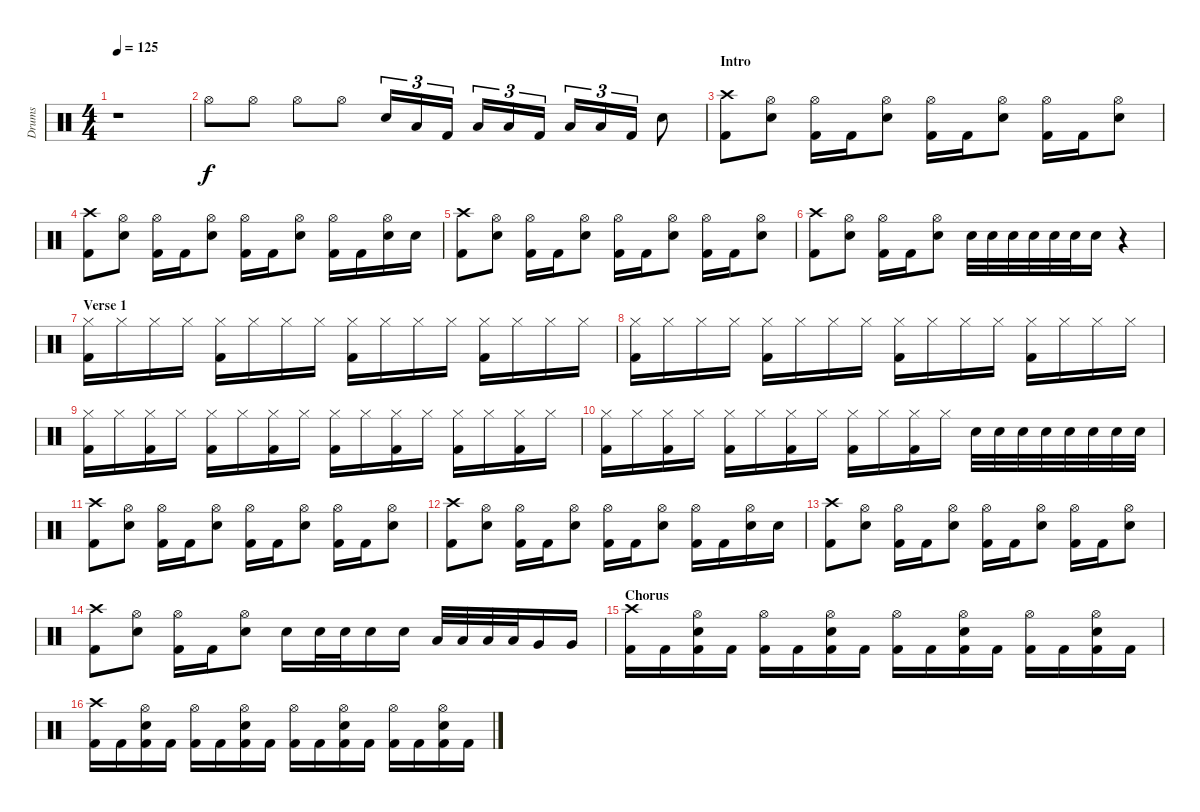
\track ("Drums" "Drums") {instrument percussion}
\staff {score}
\articulation defaults
\ts (4 4)
\tempo 125
\clef neutral
\ks c
r.1{dy f} |
"Hi-Hat (open)".8 "Hi-Hat (open)".8 "Hi-Hat (open)".8 "Hi-Hat (open)".8 "Electric Snare (hit)".16{tu (3 2)} "Low Floor Tom (hit)".16{tu (3 2)} "Kick (hit) 2".16{tu (3 2)} "Low Tom (hit)".16{tu (3 2)} "Low Floor Tom (hit)".16{tu (3 2)} "Kick (hit) 2".16{tu (3 2)} "Low Tom (hit)".16{tu (3 2)} "Low Floor Tom (hit)".16{tu (3 2)} "Kick (hit) 2".16{tu (3 2)} "Electric Snare (hit)".8 |
\section ("" "Intro")
("Crash high (hit)" "Kick (hit) 2").8 ("Hi-Hat (open)" "Electric Snare (hit)").8 ("Hi-Hat (open)" "Kick (hit) 2").16 "Kick (hit) 2".16 ("Hi-Hat (open)" "Electric Snare (hit)").8 ("Hi-Hat (open)" "Kick (hit) 2").16 "Kick (hit) 2".16 ("Hi-Hat (open)" "Electric Snare (hit)").8 ("Hi-Hat (open)" "Kick (hit) 2").16 "Kick (hit) 2".16 ("Hi-Hat (open)" "Electric Snare (hit)").8 |
("Crash high (hit)" "Kick (hit) 2").8 ("Hi-Hat (open)" "Electric Snare (hit)").8 ("Hi-Hat (open)" "Kick (hit) 2").16 "Kick (hit) 2".16 ("Hi-Hat (open)" "Electric Snare (hit)").8 ("Hi-Hat (open)" "Kick (hit) 2").16 "Kick (hit) 2".16 ("Hi-Hat (open)" "Electric Snare (hit)").8 ("Hi-Hat (open)" "Kick (hit) 2").16 "Kick (hit) 2".16 ("Hi-Hat (open)" "Electric Snare (hit)").16 "Electric Snare (hit)".16 |
("Crash high (hit)" "Kick (hit) 2").8 ("Hi-Hat (open)" "Electric Snare (hit)").8 ("Hi-Hat (open)" "Kick (hit) 2").16 "Kick (hit) 2".16 ("Hi-Hat (open)" "Electric Snare (hit)").8 ("Hi-Hat (open)" "Kick (hit) 2").16 "Kick (hit) 2".16 ("Hi-Hat (open)" "Electric Snare (hit)").8 ("Hi-Hat (open)" "Kick (hit) 2").16 "Kick (hit) 2".16 ("Hi-Hat (open)" "Electric Snare (hit)").8 |
("Crash high (hit)" "Kick (hit) 2").8 ("Hi-Hat (open)" "Electric Snare (hit)").8 ("Hi-Hat (open)" "Kick (hit) 2").16 "Kick (hit) 2".16 ("Hi-Hat (open)" "Electric Snare (hit)").8 "Electric Snare (hit)".32 "Electric Snare (hit)".32 "Electric Snare (hit)".32 "Electric Snare (hit)".32 "Electric Snare (hit)".32 "Electric Snare (hit)".32 "Electric Snare (hit)".16 r.4 |
\section ("" "Verse 1")
("Hi-Hat (closed)" "Kick (hit) 2").16 "Hi-Hat (closed)".16 "Hi-Hat (closed)".16 "Hi-Hat (closed)".16 ("Hi-Hat (closed)" "Kick (hit) 2").16 "Hi-Hat (closed)".16 "Hi-Hat (closed)".16 "Hi-Hat (closed)".16 ("Hi-Hat (closed)" "Kick (hit) 2").16 "Hi-Hat (closed)".16 "Hi-Hat (closed)".16 "Hi-Hat (closed)".16 ("Hi-Hat (closed)" "Kick (hit) 2").16 "Hi-Hat (closed)".16 "Hi-Hat (closed)".16 "Hi-Hat (closed)".16 |
("Hi-Hat (closed)" "Kick (hit) 2").16 "Hi-Hat (closed)".16 "Hi-Hat (closed)".16 "Hi-Hat (closed)".16 ("Hi-Hat (closed)" "Kick (hit) 2").16 "Hi-Hat (closed)".16 "Hi-Hat (closed)".16 "Hi-Hat (closed)".16 ("Hi-Hat (closed)" "Kick (hit) 2").16 "Hi-Hat (closed)".16 "Hi-Hat (closed)".16 "Hi-Hat (closed)".16 ("Hi-Hat (closed)" "Kick (hit) 2").16 "Hi-Hat (closed)".16 "Hi-Hat (closed)".16 "Hi-Hat (closed)".16 |
("Hi-Hat (closed)" "Kick (hit) 2").16 "Hi-Hat (closed)".16 ("Hi-Hat (closed)" "Kick (hit) 2").16 "Hi-Hat (closed)".16 ("Hi-Hat (closed)" "Kick (hit) 2").16 "Hi-Hat (closed)".16 ("Hi-Hat (closed)" "Kick (hit) 2").16 "Hi-Hat (closed)".16 ("Hi-Hat (closed)" "Kick (hit) 2").16 "Hi-Hat (closed)".16 ("Hi-Hat (closed)" "Kick (hit) 2").16 "Hi-Hat (closed)".16 ("Hi-Hat (closed)" "Kick (hit) 2").16 "Hi-Hat (closed)".16 ("Hi-Hat (closed)" "Kick (hit) 2").16 "Hi-Hat (closed)".16 |
("Hi-Hat (closed)" "Kick (hit) 2").16 "Hi-Hat (closed)".16 ("Hi-Hat (closed)" "Kick (hit) 2").16 "Hi-Hat (closed)".16 ("Hi-Hat (closed)" "Kick (hit) 2").16 "Hi-Hat (closed)".16 ("Hi-Hat (closed)" "Kick (hit) 2").16 "Hi-Hat (closed)".16 ("Hi-Hat (closed)" "Kick (hit) 2").16 "Hi-Hat (closed)".16 ("Hi-Hat (closed)" "Kick (hit) 2").16 "Hi-Hat (closed)".16 "Electric Snare (hit)".32 "Electric Snare (hit)".32 "Electric Snare (hit)".32 "Electric Snare (hit)".32 "Electric Snare (hit)".32 "Electric Snare (hit)".32 "Electric Snare (hit)".32 "Electric Snare (hit)".32 |
("Crash high (hit)" "Kick (hit) 2").8 ("Hi-Hat (open)" "Electric Snare (hit)").8 ("Hi-Hat (open)" "Kick (hit) 2").16 "Kick (hit) 2".16 ("Hi-Hat (open)" "Electric Snare (hit)").8 ("Hi-Hat (open)" "Kick (hit) 2").16 "Kick (hit) 2".16 ("Hi-Hat (open)" "Electric Snare (hit)").8 ("Hi-Hat (open)" "Kick (hit) 2").16 "Kick (hit) 2".16 ("Hi-Hat (open)" "Electric Snare (hit)").8 |
("Crash high (hit)" "Kick (hit) 2").8 ("Hi-Hat (open)" "Electric Snare (hit)").8 ("Hi-Hat (open)" "Kick (hit) 2").16 "Kick (hit) 2".16 ("Hi-Hat (open)" "Electric Snare (hit)").8 ("Hi-Hat (open)" "Kick (hit) 2").16 "Kick (hit) 2".16 ("Hi-Hat (open)" "Electric Snare (hit)").8 ("Hi-Hat (open)" "Kick (hit) 2").16 "Kick (hit) 2".16 ("Hi-Hat (open)" "Electric Snare (hit)").16 "Electric Snare (hit)".16 |
("Crash high (hit)" "Kick (hit) 2").8 ("Hi-Hat (open)" "Electric Snare (hit)").8 ("Hi-Hat (open)" "Kick (hit) 2").16 "Kick (hit) 2".16 ("Hi-Hat (open)" "Electric Snare (hit)").8 ("Hi-Hat (open)" "Kick (hit) 2").16 "Kick (hit) 2".16 ("Hi-Hat (open)" "Electric Snare (hit)").8 ("Hi-Hat (open)" "Kick (hit) 2").16 "Kick (hit) 2".16 ("Hi-Hat (open)" "Electric Snare (hit)").8 |
("Crash high (hit)" "Kick (hit) 2").8 ("Hi-Hat (open)" "Electric Snare (hit)").8 ("Hi-Hat (open)" "Kick (hit) 2").16 "Kick (hit) 2".16 ("Hi-Hat (open)" "Electric Snare (hit)").8 "Electric Snare (hit)".16 "Electric Snare (hit)".32 "Electric Snare (hit)".32 "Electric Snare (hit)".16 "Electric Snare (hit)".16 "Low Tom (hit)".32 "Low Tom (hit)".32 "Low Tom (hit)".32 "Low Tom (hit)".32 "Very Low Tom (hit)".16 "Very Low Tom (hit)".16 |
\section ("" "Chorus")
("Crash high (hit)" "Kick (hit) 2").16 "Kick (hit) 2".16 ("Hi-Hat (open)" "Electric Snare (hit)" "Kick (hit) 2").16 "Kick (hit) 2".16 ("Hi-Hat (open)" "Kick (hit) 2").16 "Kick (hit) 2".16 ("Hi-Hat (open)" "Electric Snare (hit)" "Kick (hit) 2").16 "Kick (hit) 2".16 ("Hi-Hat (open)" "Kick (hit) 2").16 "Kick (hit) 2".16 ("Hi-Hat (open)" "Electric Snare (hit)" "Kick (hit) 2").16 "Kick (hit) 2".16 ("Hi-Hat (open)" "Kick (hit) 2").16 "Kick (hit) 2".16 ("Hi-Hat (open)" "Electric Snare (hit)" "Kick (hit) 2").16 "Kick (hit) 2".16 |
("Crash high (hit)" "Kick (hit) 2").16 "Kick (hit) 2".16 ("Hi-Hat (open)" "Electric Snare (hit)" "Kick (hit) 2").16 "Kick (hit) 2".16 ("Hi-Hat (open)" "Kick (hit) 2").16 "Kick (hit) 2".16 ("Hi-Hat (open)" "Electric Snare (hit)" "Kick (hit) 2").16 "Kick (hit) 2".16 ("Hi-Hat (open)" "Kick (hit) 2").16 "Kick (hit) 2".16 ("Hi-Hat (open)" "Electric Snare (hit)" "Kick (hit) 2").16 "Kick (hit) 2".16 ("Hi-Hat (open)" "Kick (hit) 2").16 "Kick (hit) 2".16 ("Hi-Hat (open)" "Electric Snare (hit)" "Kick (hit) 2").16 "Kick (hit) 2".16
